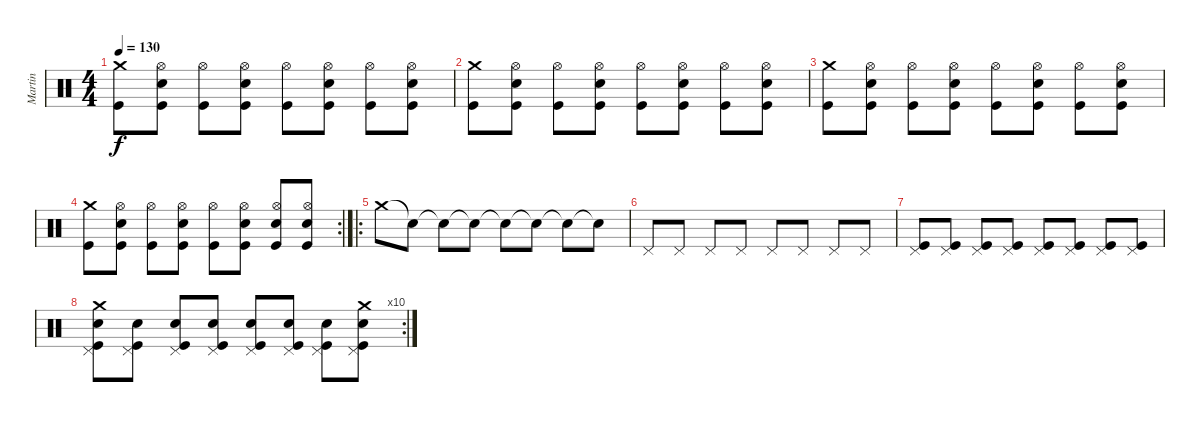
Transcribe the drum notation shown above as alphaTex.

\track ("Martin" "Martin") {instrument percussion}
\staff {score}
\articulation defaults
\ts (4 4)
\tempo 130
\clef neutral
\ks c
("Crash medium (hit)" "Kick (hit)").8{dy f} ("Hi-Hat (open)" "Snare (hit) 2" "Kick (hit)").8 ("Hi-Hat (open)" "Kick (hit)").8 ("Hi-Hat (open)" "Snare (hit) 2" "Kick (hit)").8 ("Hi-Hat (open)" "Kick (hit)").8 ("Hi-Hat (open)" "Snare (hit) 2" "Kick (hit)").8 ("Hi-Hat (open)" "Kick (hit)").8 ("Hi-Hat (open)" "Snare (hit) 2" "Kick (hit)").8 |
("Crash medium (hit)" "Kick (hit)").8 ("Hi-Hat (open)" "Snare (hit) 2" "Kick (hit)").8 ("Hi-Hat (open)" "Kick (hit)").8 ("Hi-Hat (open)" "Snare (hit) 2" "Kick (hit)").8 ("Hi-Hat (open)" "Kick (hit)").8 ("Hi-Hat (open)" "Snare (hit) 2" "Kick (hit)").8 ("Hi-Hat (open)" "Kick (hit)").8 ("Hi-Hat (open)" "Snare (hit) 2" "Kick (hit)").8 |
("Crash medium (hit)" "Kick (hit)").8 ("Hi-Hat (open)" "Snare (hit) 2" "Kick (hit)").8 ("Hi-Hat (open)" "Kick (hit)").8 ("Hi-Hat (open)" "Snare (hit) 2" "Kick (hit)").8 ("Hi-Hat (open)" "Kick (hit)").8 ("Hi-Hat (open)" "Snare (hit) 2" "Kick (hit)").8 ("Hi-Hat (open)" "Kick (hit)").8 ("Hi-Hat (open)" "Snare (hit) 2" "Kick (hit)").8 |
\rc 2
("Crash medium (hit)" "Kick (hit)").8 ("Hi-Hat (open)" "Snare (hit) 2" "Kick (hit)").8 ("Hi-Hat (open)" "Kick (hit)").8 ("Hi-Hat (open)" "Snare (hit) 2" "Kick (hit)").8 ("Hi-Hat (open)" "Kick (hit)").8 ("Hi-Hat (open)" "Snare (hit) 2" "Kick (hit)").8 ("Hi-Hat (open)" "Snare (hit) 2" "Kick (hit)").8 ("Hi-Hat (open)" "Snare (hit) 2" "Kick (hit)").8 |
\ro "Crash medium (hit)".8 "Snare (hit)"{t}.8 "Snare (hit)"{t}.8 "Snare (hit)"{t}.8 "Snare (hit)"{t}.8 "Snare (hit)"{t}.8 "Snare (hit)"{t}.8 "Snare (hit)"{t}.8
|
"Pedal Hi-Hat (hit)".8 "Pedal Hi-Hat (hit)".8 "Pedal Hi-Hat (hit)".8 "Pedal Hi-Hat (hit)".8 "Pedal Hi-Hat (hit)".8 "Pedal Hi-Hat (hit)".8 "Pedal Hi-Hat (hit)".8 "Pedal Hi-Hat (hit)".8 |
("Pedal Hi-Hat (hit)" "Kick (hit)").8 ("Pedal Hi-Hat (hit)" "Kick (hit)").8 ("Pedal Hi-Hat (hit)" "Kick (hit)").8 ("Pedal Hi-Hat (hit)" "Kick (hit)").8 ("Pedal Hi-Hat (hit)" "Kick (hit)").8 ("Pedal Hi-Hat (hit)" "Kick (hit)").8 ("Pedal Hi-Hat (hit)" "Kick (hit)").8 ("Pedal Hi-Hat (hit)" "Kick (hit)").8 |
\rc 10
("Snare (hit) 2" "Pedal Hi-Hat (hit)" "Crash medium (hit)" "Kick (hit)").8 ("Pedal Hi-Hat (hit)" "Snare (hit) 2" "Kick (hit)").8 ("Pedal Hi-Hat (hit)" "Snare (hit) 2" "Kick (hit)").8 ("Pedal Hi-Hat (hit)" "Snare (hit) 2" "Kick (hit)").8 ("Pedal Hi-Hat (hit)" "Snare (hit) 2" "Kick (hit)").8 ("Pedal Hi-Hat (hit)" "Snare (hit) 2" "Kick (hit)").8 ("Pedal Hi-Hat (hit)" "Snare (hit) 2" "Kick (hit)").8 ("Snare (hit) 2" "Pedal Hi-Hat (hit)" "Crash medium (hit)" "Kick (hit)").8
